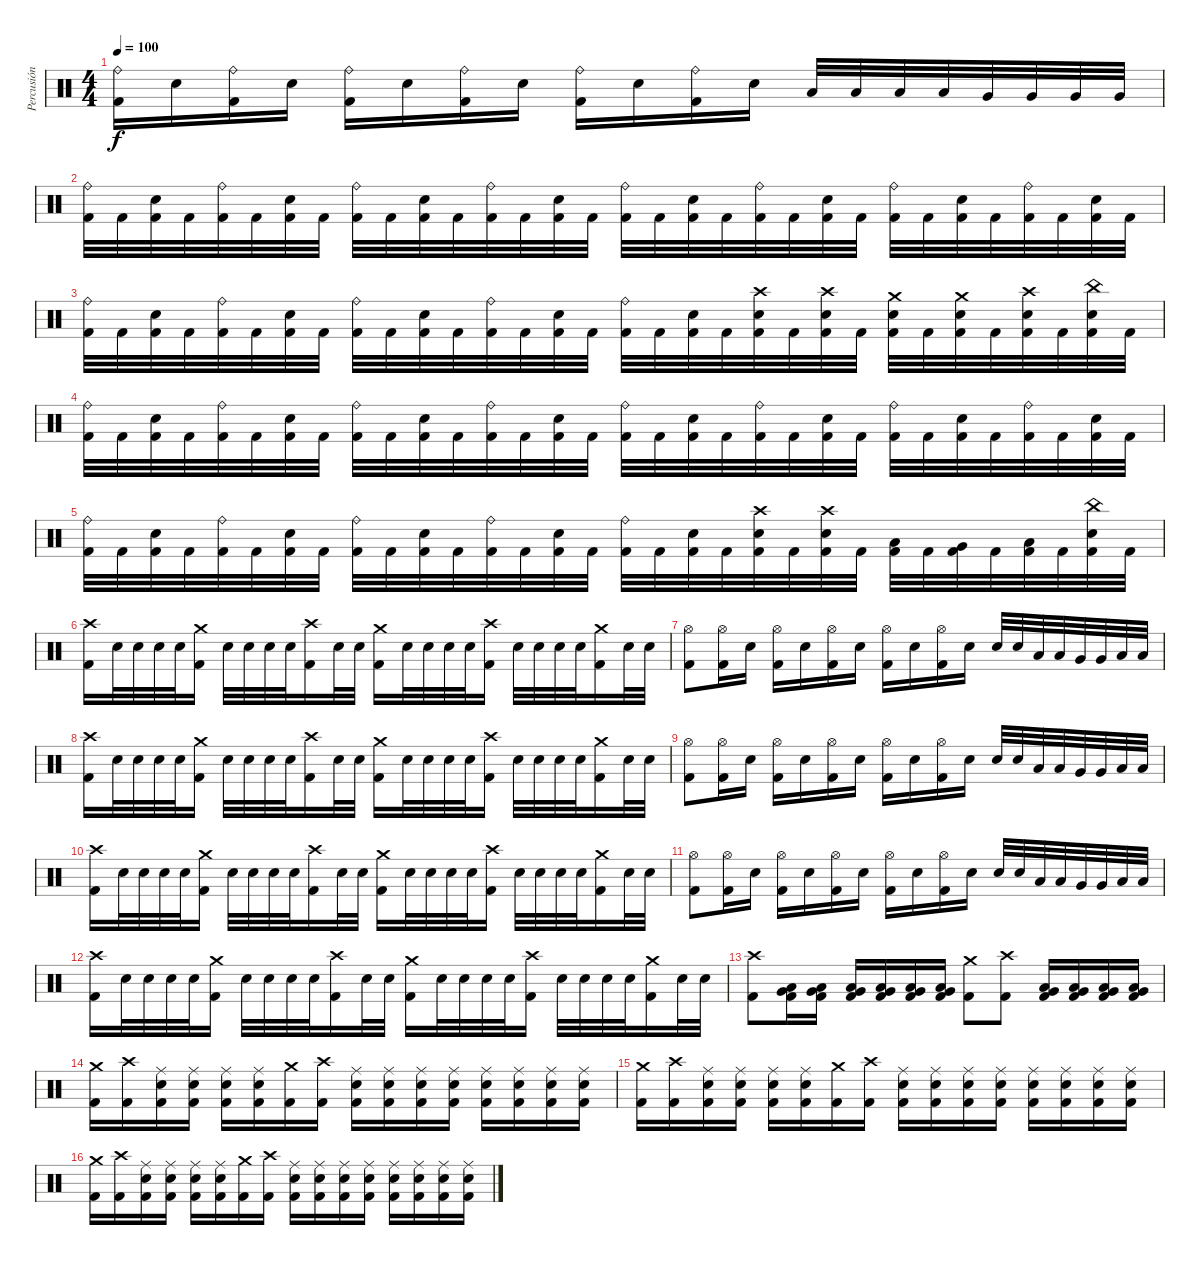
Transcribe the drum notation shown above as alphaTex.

\track ("Percusión" "Percusión") {instrument percussion}
\staff {score}
\articulation defaults
\ts (4 4)
\tempo 100
\clef neutral
\ks c
("Ride (bell)" "Kick (hit) 2").16{dy f} "Snare (hit) 2".16 ("Ride (bell)" "Kick (hit) 2").16 "Snare (hit) 2".16 ("Ride (bell)" "Kick (hit) 2").16 "Snare (hit) 2".16 ("Ride (bell)" "Kick (hit) 2").16 "Snare (hit) 2".16 ("Ride (bell)" "Kick (hit) 2").16 "Snare (hit) 2".16 ("Ride (bell)" "Kick (hit) 2").16 "Snare (hit) 2".16 "Low Tom (hit)".32 "Low Tom (hit)".32 "Low Tom (hit)".32 "Low Tom (hit)".32 "Very Low Tom (hit)".32 "Very Low Tom (hit)".32 "Very Low Tom (hit)".32 "Very Low Tom (hit)".32 |
("Kick (hit) 2" "Ride (bell)").32 "Kick (hit) 2".32 ("Kick (hit) 2" "Snare (hit) 2").32 "Kick (hit) 2".32 ("Kick (hit) 2" "Ride (bell)").32 "Kick (hit) 2".32 ("Kick (hit) 2" "Snare (hit) 2").32 "Kick (hit) 2".32 ("Kick (hit) 2" "Ride (bell)").32 "Kick (hit) 2".32 ("Kick (hit) 2" "Snare (hit) 2").32 "Kick (hit) 2".32 ("Kick (hit) 2" "Ride (bell)").32 "Kick (hit) 2".32 ("Kick (hit) 2" "Snare (hit) 2").32 "Kick (hit) 2".32 ("Kick (hit) 2" "Ride (bell)").32 "Kick (hit) 2".32 ("Kick (hit) 2" "Snare (hit) 2").32 "Kick (hit) 2".32 ("Kick (hit) 2" "Ride (bell)").32 "Kick (hit) 2".32 ("Kick (hit) 2" "Snare (hit) 2").32 "Kick (hit) 2".32 ("Kick (hit) 2" "Ride (bell)").32 "Kick (hit) 2".32 ("Kick (hit) 2" "Snare (hit) 2").32 "Kick (hit) 2".32 ("Kick (hit) 2" "Ride (bell)").32 "Kick (hit) 2".32 ("Kick (hit) 2" "Snare (hit) 2").32 "Kick (hit) 2".32 |
("Kick (hit) 2" "Ride (bell)").32 "Kick (hit) 2".32 ("Kick (hit) 2" "Snare (hit) 2").32 "Kick (hit) 2".32 ("Kick (hit) 2" "Ride (bell)").32 "Kick (hit) 2".32 ("Kick (hit) 2" "Snare (hit) 2").32 "Kick (hit) 2".32 ("Kick (hit) 2" "Ride (bell)").32 "Kick (hit) 2".32 ("Kick (hit) 2" "Snare (hit) 2").32 "Kick (hit) 2".32 ("Kick (hit) 2" "Ride (bell)").32 "Kick (hit) 2".32 ("Kick (hit) 2" "Snare (hit) 2").32 "Kick (hit) 2".32 ("Kick (hit) 2" "Ride (bell)").32 "Kick (hit) 2".32 ("Kick (hit) 2" "Snare (hit) 2").32 "Kick (hit) 2".32 ("Kick (hit) 2" "Crash high (hit)" "Snare (hit) 2").32 "Kick (hit) 2".32 ("Kick (hit) 2" "Crash high (hit)" "Snare (hit) 2").32 "Kick (hit) 2".32 ("Kick (hit) 2" "Crash medium (hit)" "Snare (hit) 2").32 "Kick (hit) 2".32 ("Kick (hit) 2" "Crash medium (hit)" "Snare (hit) 2").32 "Kick (hit) 2".32 ("Kick (hit) 2" "Crash high (hit)" "Snare (hit) 2").32 "Kick (hit) 2".32 ("Kick (hit) 2" "China (hit)" "Snare (hit) 2").32 "Kick (hit) 2".32 |
("Kick (hit) 2" "Ride (bell)").32 "Kick (hit) 2".32 ("Kick (hit) 2" "Snare (hit) 2").32 "Kick (hit) 2".32 ("Kick (hit) 2" "Ride (bell)").32 "Kick (hit) 2".32 ("Kick (hit) 2" "Snare (hit) 2").32 "Kick (hit) 2".32 ("Kick (hit) 2" "Ride (bell)").32 "Kick (hit) 2".32 ("Kick (hit) 2" "Snare (hit) 2").32 "Kick (hit) 2".32 ("Kick (hit) 2" "Ride (bell)").32 "Kick (hit) 2".32 ("Kick (hit) 2" "Snare (hit) 2").32 "Kick (hit) 2".32 ("Kick (hit) 2" "Ride (bell)").32 "Kick (hit) 2".32 ("Kick (hit) 2" "Snare (hit) 2").32 "Kick (hit) 2".32 ("Kick (hit) 2" "Ride (bell)").32 "Kick (hit) 2".32 ("Kick (hit) 2" "Snare (hit) 2").32 "Kick (hit) 2".32 ("Kick (hit) 2" "Ride (bell)").32 "Kick (hit) 2".32 ("Kick (hit) 2" "Snare (hit) 2").32 "Kick (hit) 2".32 ("Kick (hit) 2" "Ride (bell)").32 "Kick (hit) 2".32 ("Kick (hit) 2" "Snare (hit) 2").32 "Kick (hit) 2".32 |
("Kick (hit) 2" "Ride (bell)").32 "Kick (hit) 2".32 ("Kick (hit) 2" "Snare (hit) 2").32 "Kick (hit) 2".32 ("Kick (hit) 2" "Ride (bell)").32 "Kick (hit) 2".32 ("Kick (hit) 2" "Snare (hit) 2").32 "Kick (hit) 2".32 ("Kick (hit) 2" "Ride (bell)").32 "Kick (hit) 2".32 ("Kick (hit) 2" "Snare (hit) 2").32 "Kick (hit) 2".32 ("Kick (hit) 2" "Ride (bell)").32 "Kick (hit) 2".32 ("Kick (hit) 2" "Snare (hit) 2").32 "Kick (hit) 2".32 ("Kick (hit) 2" "Ride (bell)").32 "Kick (hit) 2".32 ("Kick (hit) 2" "Snare (hit) 2").32 "Kick (hit) 2".32 ("Kick (hit) 2" "Crash high (hit)" "Snare (hit) 2").32 "Kick (hit) 2".32 ("Kick (hit) 2" "Crash high (hit)" "Snare (hit) 2").32 "Kick (hit) 2".32 ("Kick (hit) 2" "Low Tom (hit)").32 "Kick (hit) 2".32 ("Kick (hit) 2" "Very Low Tom (hit)").32 "Kick (hit) 2".32 ("Kick (hit) 2" "Low Floor Tom (hit)").32 "Kick (hit) 2".32 ("Kick (hit) 2" "China (hit)" "Snare (hit) 2").32 "Kick (hit) 2".32 |
("Crash high (hit)" "Kick (hit) 2").16 "Snare (hit) 2".32 "Snare (hit) 2".32 "Snare (hit) 2".32 "Snare (hit) 2".32 ("Crash medium (hit)" "Kick (hit) 2").16 "Snare (hit) 2".32 "Snare (hit) 2".32 "Snare (hit) 2".32 "Snare (hit) 2".32 ("Crash high (hit)" "Kick (hit) 2").16 "Snare (hit) 2".32 "Snare (hit) 2".32 ("Crash medium (hit)" "Kick (hit) 2").16 "Snare (hit) 2".32 "Snare (hit) 2".32 "Snare (hit) 2".32 "Snare (hit) 2".32 ("Crash high (hit)" "Kick (hit) 2").16 "Snare (hit) 2".32 "Snare (hit) 2".32 "Snare (hit) 2".32 "Snare (hit) 2".32 ("Kick (hit) 2" "Crash medium (hit)").16 "Snare (hit) 2".32 "Snare (hit) 2".32 |
("Hi-Hat (open)" "Kick (hit) 2").8 ("Hi-Hat (open)" "Kick (hit) 2").16 "Snare (hit) 2".16 ("Hi-Hat (open)" "Kick (hit) 2").16 "Snare (hit) 2".16 ("Hi-Hat (open)" "Kick (hit) 2").16 "Snare (hit) 2".16 ("Hi-Hat (open)" "Kick (hit) 2").16 "Snare (hit) 2".16 ("Hi-Hat (open)" "Kick (hit) 2").16 "Snare (hit) 2".16 "Snare (hit) 2".32 "Snare (hit) 2".32 "Low Tom (hit)".32 "Low Tom (hit)".32 "Very Low Tom (hit)".32 "Very Low Tom (hit)".32 "Low Floor Tom (hit)".32 "Low Floor Tom (hit)".32 |
("Crash high (hit)" "Kick (hit) 2").16 "Snare (hit) 2".32 "Snare (hit) 2".32 "Snare (hit) 2".32 "Snare (hit) 2".32 ("Crash medium (hit)" "Kick (hit) 2").16 "Snare (hit) 2".32 "Snare (hit) 2".32 "Snare (hit) 2".32 "Snare (hit) 2".32 ("Crash high (hit)" "Kick (hit) 2").16 "Snare (hit) 2".32 "Snare (hit) 2".32 ("Crash medium (hit)" "Kick (hit) 2").16 "Snare (hit) 2".32 "Snare (hit) 2".32 "Snare (hit) 2".32 "Snare (hit) 2".32 ("Crash high (hit)" "Kick (hit) 2").16 "Snare (hit) 2".32 "Snare (hit) 2".32 "Snare (hit) 2".32 "Snare (hit) 2".32 ("Kick (hit) 2" "Crash medium (hit)").16 "Snare (hit) 2".32 "Snare (hit) 2".32 |
("Hi-Hat (open)" "Kick (hit) 2").8 ("Hi-Hat (open)" "Kick (hit) 2").16 "Snare (hit) 2".16 ("Hi-Hat (open)" "Kick (hit) 2").16 "Snare (hit) 2".16 ("Hi-Hat (open)" "Kick (hit) 2").16 "Snare (hit) 2".16 ("Hi-Hat (open)" "Kick (hit) 2").16 "Snare (hit) 2".16 ("Hi-Hat (open)" "Kick (hit) 2").16 "Snare (hit) 2".16 "Snare (hit) 2".32 "Snare (hit) 2".32 "Low Tom (hit)".32 "Low Tom (hit)".32 "Very Low Tom (hit)".32 "Very Low Tom (hit)".32 "Low Floor Tom (hit)".32 "Low Floor Tom (hit)".32 |
("Crash high (hit)" "Kick (hit) 2").16 "Snare (hit) 2".32 "Snare (hit) 2".32 "Snare (hit) 2".32 "Snare (hit) 2".32 ("Crash medium (hit)" "Kick (hit) 2").16 "Snare (hit) 2".32 "Snare (hit) 2".32 "Snare (hit) 2".32 "Snare (hit) 2".32 ("Crash high (hit)" "Kick (hit) 2").16 "Snare (hit) 2".32 "Snare (hit) 2".32 ("Crash medium (hit)" "Kick (hit) 2").16 "Snare (hit) 2".32 "Snare (hit) 2".32 "Snare (hit) 2".32 "Snare (hit) 2".32 ("Crash high (hit)" "Kick (hit) 2").16 "Snare (hit) 2".32 "Snare (hit) 2".32 "Snare (hit) 2".32 "Snare (hit) 2".32 ("Kick (hit) 2" "Crash medium (hit)").16 "Snare (hit) 2".32 "Snare (hit) 2".32 |
("Hi-Hat (open)" "Kick (hit) 2").8 ("Hi-Hat (open)" "Kick (hit) 2").16 "Snare (hit) 2".16 ("Hi-Hat (open)" "Kick (hit) 2").16 "Snare (hit) 2".16 ("Hi-Hat (open)" "Kick (hit) 2").16 "Snare (hit) 2".16 ("Hi-Hat (open)" "Kick (hit) 2").16 "Snare (hit) 2".16 ("Hi-Hat (open)" "Kick (hit) 2").16 "Snare (hit) 2".16 "Snare (hit) 2".32 "Snare (hit) 2".32 "Low Tom (hit)".32 "Low Tom (hit)".32 "Very Low Tom (hit)".32 "Very Low Tom (hit)".32 "Low Floor Tom (hit)".32 "Low Floor Tom (hit)".32 |
("Crash high (hit)" "Kick (hit) 2").16 "Snare (hit) 2".32 "Snare (hit) 2".32 "Snare (hit) 2".32 "Snare (hit) 2".32 ("Crash medium (hit)" "Kick (hit) 2").16 "Snare (hit) 2".32 "Snare (hit) 2".32 "Snare (hit) 2".32 "Snare (hit) 2".32 ("Crash high (hit)" "Kick (hit) 2").16 "Snare (hit) 2".32 "Snare (hit) 2".32 ("Crash medium (hit)" "Kick (hit) 2").16 "Snare (hit) 2".32 "Snare (hit) 2".32 "Snare (hit) 2".32 "Snare (hit) 2".32 ("Crash high (hit)" "Kick (hit) 2").16 "Snare (hit) 2".32 "Snare (hit) 2".32 "Snare (hit) 2".32 "Snare (hit) 2".32 ("Kick (hit) 2" "Crash medium (hit)").16 "Snare (hit) 2".32 "Snare (hit) 2".32 |
("Kick (hit) 2" "Crash high (hit)").8 ("Low Floor Tom (hit)" "Very Low Tom (hit)" "Kick (hit) 2").16 ("Low Floor Tom (hit)" "Very Low Tom (hit)" "Kick (hit) 2").16 ("Low Floor Tom (hit)" "Very Low Tom (hit)" "Kick (hit) 2").16 ("Low Floor Tom (hit)" "Very Low Tom (hit)" "Kick (hit) 2").16 ("Low Floor Tom (hit)" "Very Low Tom (hit)" "Kick (hit) 2").16 ("Low Floor Tom (hit)" "Very Low Tom (hit)" "Kick (hit) 2").16 ("Crash medium (hit)" "Kick (hit) 2").8 ("Crash high (hit)" "Kick (hit) 2").8 ("Low Floor Tom (hit)" "Very Low Tom (hit)" "Kick (hit) 2").16 ("Low Floor Tom (hit)" "Very Low Tom (hit)" "Kick (hit) 2").16 ("Low Floor Tom (hit)" "Very Low Tom (hit)" "Kick (hit) 2").16 ("Low Floor Tom (hit)" "Very Low Tom (hit)" "Kick (hit) 2").16 |
("Kick (hit) 2" "Crash medium (hit)").16 ("Kick (hit) 2" "Crash high (hit)").16 ("Ride (middle)" "Snare (hit) 2" "Kick (hit) 2").16 ("Ride (middle)" "Snare (hit) 2" "Kick (hit) 2").16 ("Ride (middle)" "Snare (hit) 2" "Kick (hit) 2").16 ("Ride (middle)" "Snare (hit) 2" "Kick (hit) 2").16 ("Crash medium (hit)" "Kick (hit) 2").16 ("Crash high (hit)" "Kick (hit) 2").16 ("Snare (hit) 2" "Ride (middle)" "Kick (hit) 2").16 ("Snare (hit) 2" "Ride (middle)" "Kick (hit) 2").16 ("Snare (hit) 2" "Ride (middle)" "Kick (hit) 2").16 ("Snare (hit) 2" "Ride (middle)" "Kick (hit) 2").16 ("Snare (hit) 2" "Ride (middle)" "Kick (hit) 2").16 ("Snare (hit) 2" "Ride (middle)" "Kick (hit) 2").16 ("Snare (hit) 2" "Ride (middle)" "Kick (hit) 2").16 ("Snare (hit) 2" "Ride (middle)" "Kick (hit) 2").16 |
("Kick (hit) 2" "Crash medium (hit)").16 ("Kick (hit) 2" "Crash high (hit)").16 ("Ride (middle)" "Snare (hit) 2" "Kick (hit) 2").16 ("Ride (middle)" "Snare (hit) 2" "Kick (hit) 2").16 ("Ride (middle)" "Snare (hit) 2" "Kick (hit) 2").16 ("Ride (middle)" "Snare (hit) 2" "Kick (hit) 2").16 ("Crash medium (hit)" "Kick (hit) 2").16 ("Crash high (hit)" "Kick (hit) 2").16 ("Snare (hit) 2" "Ride (middle)" "Kick (hit) 2").16 ("Snare (hit) 2" "Ride (middle)" "Kick (hit) 2").16 ("Snare (hit) 2" "Ride (middle)" "Kick (hit) 2").16 ("Snare (hit) 2" "Ride (middle)" "Kick (hit) 2").16 ("Snare (hit) 2" "Ride (middle)" "Kick (hit) 2").16 ("Snare (hit) 2" "Ride (middle)" "Kick (hit) 2").16 ("Snare (hit) 2" "Ride (middle)" "Kick (hit) 2").16 ("Snare (hit) 2" "Ride (middle)" "Kick (hit) 2").16 |
("Kick (hit) 2" "Crash medium (hit)").16 ("Kick (hit) 2" "Crash high (hit)").16 ("Ride (middle)" "Snare (hit) 2" "Kick (hit) 2").16 ("Ride (middle)" "Snare (hit) 2" "Kick (hit) 2").16 ("Ride (middle)" "Snare (hit) 2" "Kick (hit) 2").16 ("Ride (middle)" "Snare (hit) 2" "Kick (hit) 2").16 ("Crash medium (hit)" "Kick (hit) 2").16 ("Crash high (hit)" "Kick (hit) 2").16 ("Snare (hit) 2" "Ride (middle)" "Kick (hit) 2").16 ("Snare (hit) 2" "Ride (middle)" "Kick (hit) 2").16 ("Snare (hit) 2" "Ride (middle)" "Kick (hit) 2").16 ("Snare (hit) 2" "Ride (middle)" "Kick (hit) 2").16 ("Snare (hit) 2" "Ride (middle)" "Kick (hit) 2").16 ("Snare (hit) 2" "Ride (middle)" "Kick (hit) 2").16 ("Snare (hit) 2" "Ride (middle)" "Kick (hit) 2").16 ("Snare (hit) 2" "Ride (middle)" "Kick (hit) 2").16
